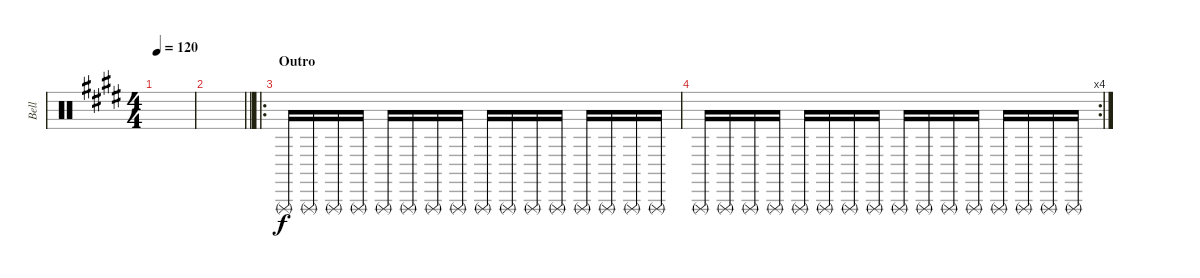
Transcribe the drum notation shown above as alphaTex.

\track ("Bell" "Bell") {instrument percussion}
\staff {score}
\articulation defaults
\ts (4 4)
\tempo 120
\clef neutral
\ks e
|
\barLineRight lightlight
|
\ro
\section ("" "Outro")
"Triangle (rnute)".16 "Triangle (rnute)".16 "Triangle (rnute)".16 "Triangle (rnute)".16 "Triangle (rnute)".16 "Triangle (rnute)".16 "Triangle (rnute)".16 "Triangle (rnute)".16 "Triangle (rnute)".16 "Triangle (rnute)".16 "Triangle (rnute)".16 "Triangle (rnute)".16 "Triangle (rnute)".16 "Triangle (rnute)".16 "Triangle (rnute)".16 "Triangle (rnute)".16 |
\rc 4 "Triangle (rnute)".16 "Triangle (rnute)".16 "Triangle (rnute)".16 "Triangle (rnute)".16 "Triangle (rnute)".16 "Triangle (rnute)".16 "Triangle (rnute)".16 "Triangle (rnute)".16 "Triangle (rnute)".16 "Triangle (rnute)".16 "Triangle (rnute)".16 "Triangle (rnute)".16 "Triangle (rnute)".16 "Triangle (rnute)".16 "Triangle (rnute)".16 "Triangle (rnute)".16
